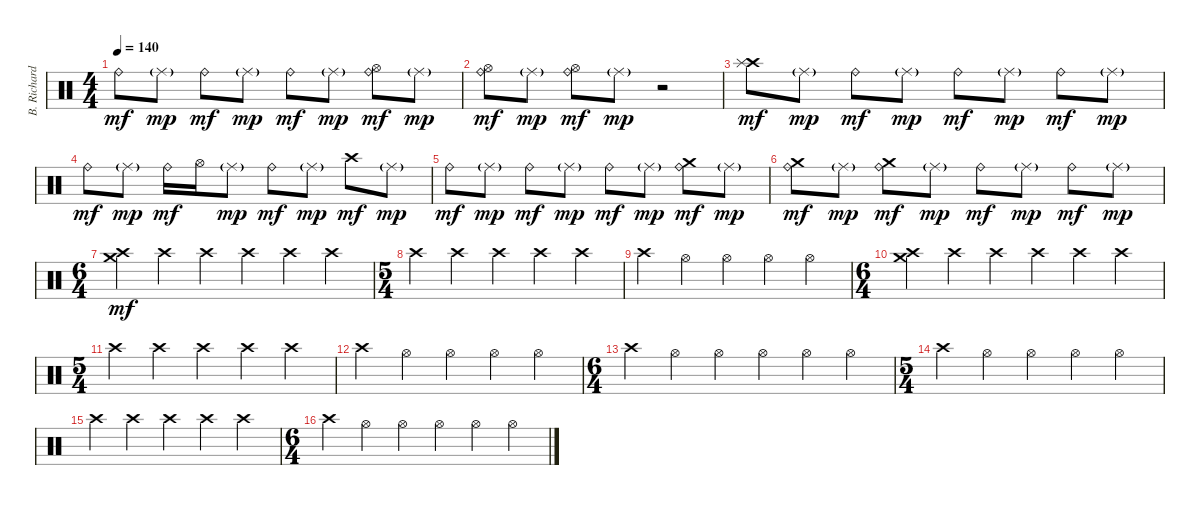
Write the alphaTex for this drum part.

\track ("B. Richardson Drums" "B. Richard") {instrument percussion}
\staff {score}
\articulation defaults
\ts (4 4)
\tempo 140
\clef neutral
\ks c "Ride (bell)".8{dy mf} "Ride (middle)"{g}.8{dy mp} "Ride (bell)".8{dy mf} "Ride (middle)"{g}.8{dy mp} "Ride (bell)".8{dy mf} "Ride (middle)"{g}.8{dy mp}
("Ride (bell)" "Hi-Hat (open)").8{dy mf} "Ride (middle)"{g}.8{dy mp} |
("Ride (bell)" "Hi-Hat (open)").8{dy mf} "Ride (middle)"{g}.8{dy mp} ("Ride (bell)" "Hi-Hat (open)").8{dy mf} "Ride (middle)"{g}.8{dy mp} r.2 |
("Crash high (hit)" "Splash (hit)").8{dy mf} "Ride (middle)"{g}.8{dy mp} "Ride (bell)".8{dy mf} "Ride (middle)"{g}.8{dy mp} "Ride (bell)".8{dy mf} "Ride (middle)"{g}.8{dy mp} "Ride (bell)".8{dy mf} "Ride (middle)"{g}.8{dy mp} |
"Ride (bell)".8{dy mf} "Ride (middle)"{g}.8{dy mp} "Ride (bell)".16{dy mf} "Hi-Hat (open)".16 "Ride (middle)"{g}.8{dy mp} "Ride (bell)".8{dy mf} "Ride (middle)"{g}.8{dy mp} "Crash high (hit)".8{dy mf} "Ride (middle)"{g}.8{dy mp} |
"Ride (bell)".8{dy mf} "Ride (middle)"{g}.8{dy mp} "Ride (bell)".8{dy mf} "Ride (middle)"{g}.8{dy mp} "Ride (bell)".8{dy mf} "Ride (middle)"{g}.8{dy mp} ("Ride (bell)" "Crash medium (hit)").8{dy mf} "Ride (middle)"{g}.8{dy mp} |
("Ride (bell)" "Crash medium (hit)").8{dy mf} "Ride (middle)"{g}.8{dy mp} ("Ride (bell)" "Crash medium (hit)").8{dy mf} "Ride (middle)"{g}.8{dy mp} "Ride (bell)".8{dy mf} "Ride (middle)"{g}.8{dy mp} "Ride (bell)".8{dy mf} "Ride (middle)"{g}.8{dy mp} |
\ts (6 4)
("Crash high (hit)" "Crash medium (hit)").4{dy mf} "Crash high (hit)".4 "Crash high (hit)".4 "Crash high (hit)".4 "Crash high (hit)".4 "Crash high (hit)".4 |
\ts (5 4)
"Crash high (hit)".4 "Crash high (hit)".4 "Crash high (hit)".4 "Crash high (hit)".4 "Crash high (hit)".4 |
"Crash high (hit)".4 "Hi-Hat (open)".4 "Hi-Hat (open)".4 "Hi-Hat (open)".4 "Hi-Hat (open)".4 |
\ts (6 4)
("Crash high (hit)" "Crash medium (hit)").4 "Crash high (hit)".4 "Crash high (hit)".4 "Crash high (hit)".4 "Crash high (hit)".4 "Crash high (hit)".4 |
\ts (5 4)
"Crash high (hit)".4 "Crash high (hit)".4 "Crash high (hit)".4 "Crash high (hit)".4 "Crash high (hit)".4 |
"Crash high (hit)".4 "Hi-Hat (open)".4 "Hi-Hat (open)".4 "Hi-Hat (open)".4 "Hi-Hat (open)".4 |
\ts (6 4)
"Crash high (hit)".4 "Hi-Hat (open)".4 "Hi-Hat (open)".4 "Hi-Hat (open)".4 "Hi-Hat (open)".4 "Hi-Hat (open)".4 |
\ts (5 4)
"Crash high (hit)".4 "Hi-Hat (open)".4 "Hi-Hat (open)".4 "Hi-Hat (open)".4 "Hi-Hat (open)".4 |
"Crash high (hit)".4 "Crash high (hit)".4 "Crash high (hit)".4 "Crash high (hit)".4 "Crash high (hit)".4 |
\ts (6 4)
"Crash high (hit)".4 "Hi-Hat (open)".4 "Hi-Hat (open)".4 "Hi-Hat (open)".4 "Hi-Hat (open)".4 "Hi-Hat (open)".4
